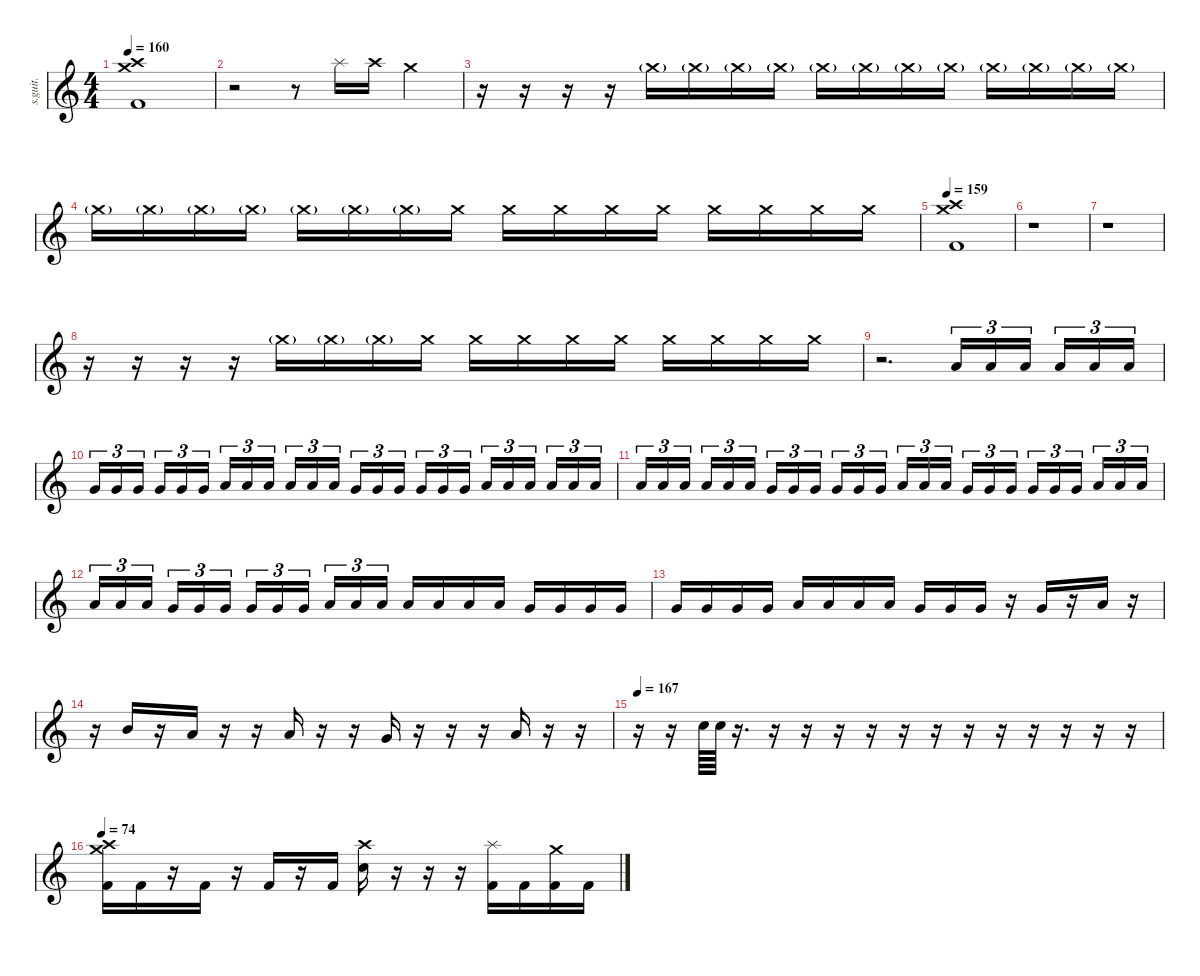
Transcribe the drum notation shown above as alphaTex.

\defaultSystemsLayout 4
\hideDynamics
\bracketExtendMode nobrackets
\track ("Drumkit" "s.guit.") {instrument percussion}
\staff {score}
\articulation defaults
\ts (4 4)
\tempo 160
\clef g2
\ks c
("Crash high (hit)" "Crash medium (hit)" "Kick (hit) 2").1{lyrics (0 "") lyrics (1 "") lyrics (2 "") lyrics (3 "") lyrics (4 "") dy f} |
r.2 r.8 "Splash (hit)".16{lyrics (0 "") lyrics (1 "") lyrics (2 "") lyrics (3 "") lyrics (4 "")} "Crash high (hit)".16{lyrics (0 "") lyrics (1 "") lyrics (2 "") lyrics (3 "") lyrics (4 "")} "Crash medium (hit)".4{lyrics (0 "") lyrics (1 "") lyrics (2 "") lyrics (3 "") lyrics (4 "")} |
r.16 r.16 r.16 r.16 "Crash medium (hit)"{g}.16{lyrics (0 "") lyrics (1 "") lyrics (2 "") lyrics (3 "") lyrics (4 "") dy ppp} "Crash medium (hit)"{g}.16{lyrics (0 "") lyrics (1 "") lyrics (2 "") lyrics (3 "") lyrics (4 "")} "Crash medium (hit)"{g}.16{lyrics (0 "") lyrics (1 "") lyrics (2 "") lyrics (3 "") lyrics (4 "")} "Crash medium (hit)"{g}.16{lyrics (0 "") lyrics (1 "") lyrics (2 "") lyrics (3 "") lyrics (4 "")} "Crash medium (hit)"{g}.16{lyrics (0 "") lyrics (1 "") lyrics (2 "") lyrics (3 "") lyrics (4 "")} "Crash medium (hit)"{g}.16{lyrics (0 "") lyrics (1 "") lyrics (2 "") lyrics (3 "") lyrics (4 "")} "Crash medium (hit)"{g}.16{lyrics (0 "") lyrics (1 "") lyrics (2 "") lyrics (3 "") lyrics (4 "") dy pp} "Crash medium (hit)"{g}.16{lyrics (0 "") lyrics (1 "") lyrics (2 "") lyrics (3 "") lyrics (4 "")} "Crash medium (hit)"{g}.16{lyrics (0 "") lyrics (1 "") lyrics (2 "") lyrics (3 "") lyrics (4 "")} "Crash medium (hit)"{g}.16{lyrics (0 "") lyrics (1 "") lyrics (2 "") lyrics (3 "") lyrics (4 "")} "Crash medium (hit)"{g}.16{lyrics (0 "") lyrics (1 "") lyrics (2 "") lyrics (3 "") lyrics (4 "")} "Crash medium (hit)"{g}.16{lyrics (0 "") lyrics (1 "") lyrics (2 "") lyrics (3 "") lyrics (4 "") dy p} |
"Crash medium (hit)"{g}.16{lyrics (0 "") lyrics (1 "") lyrics (2 "") lyrics (3 "") lyrics (4 "")} "Crash medium (hit)"{g}.16{lyrics (0 "") lyrics (1 "") lyrics (2 "") lyrics (3 "") lyrics (4 "")} "Crash medium (hit)"{g}.16{lyrics (0 "") lyrics (1 "") lyrics (2 "") lyrics (3 "") lyrics (4 "")} "Crash medium (hit)"{g}.16{lyrics (0 "") lyrics (1 "") lyrics (2 "") lyrics (3 "") lyrics (4 "")} "Crash medium (hit)"{g}.16{lyrics (0 "") lyrics (1 "") lyrics (2 "") lyrics (3 "") lyrics (4 "")} "Crash medium (hit)"{g}.16{lyrics (0 "") lyrics (1 "") lyrics (2 "") lyrics (3 "") lyrics (4 "") dy mp} "Crash medium (hit)"{g}.16{lyrics (0 "") lyrics (1 "") lyrics (2 "") lyrics (3 "") lyrics (4 "")} "Crash medium (hit)".16{lyrics (0 "") lyrics (1 "") lyrics (2 "") lyrics (3 "") lyrics (4 "") dy mf} "Crash medium (hit)".16{lyrics (0 "") lyrics (1 "") lyrics (2 "") lyrics (3 "") lyrics (4 "")} "Crash medium (hit)".16{lyrics (0 "") lyrics (1 "") lyrics (2 "") lyrics (3 "") lyrics (4 "")} "Crash medium (hit)".16{lyrics (0 "") lyrics (1 "") lyrics (2 "") lyrics (3 "") lyrics (4 "")} "Crash medium (hit)".16{lyrics (0 "") lyrics (1 "") lyrics (2 "") lyrics (3 "") lyrics (4 "")} "Crash medium (hit)".16{lyrics (0 "") lyrics (1 "") lyrics (2 "") lyrics (3 "") lyrics (4 "") dy f} "Crash medium (hit)".16{lyrics (0 "") lyrics (1 "") lyrics (2 "") lyrics (3 "") lyrics (4 "")} "Crash medium (hit)".16{lyrics (0 "") lyrics (1 "") lyrics (2 "") lyrics (3 "") lyrics (4 "")} "Crash medium (hit)".16{lyrics (0 "") lyrics (1 "") lyrics (2 "") lyrics (3 "") lyrics (4 "")} |
\tempo 159
("Crash medium (hit)" "Crash high (hit)" "Kick (hit) 2").1{lyrics (0 "") lyrics (1 "") lyrics (2 "") lyrics (3 "") lyrics (4 "")} |
r.1 |
r.1 |
r.16 r.16 r.16 r.16 "Crash medium (hit)"{g}.16{lyrics (0 "") lyrics (1 "") lyrics (2 "") lyrics (3 "") lyrics (4 "") dy p} "Crash medium (hit)"{g}.16{lyrics (0 "") lyrics (1 "") lyrics (2 "") lyrics (3 "") lyrics (4 "") dy mp} "Crash medium (hit)"{g}.16{lyrics (0 "") lyrics (1 "") lyrics (2 "") lyrics (3 "") lyrics (4 "")} "Crash medium (hit)".16{lyrics (0 "") lyrics (1 "") lyrics (2 "") lyrics (3 "") lyrics (4 "") dy mf} "Crash medium (hit)".16{lyrics (0 "") lyrics (1 "") lyrics (2 "") lyrics (3 "") lyrics (4 "")} "Crash medium (hit)".16{lyrics (0 "") lyrics (1 "") lyrics (2 "") lyrics (3 "") lyrics (4 "")} "Crash medium (hit)".16{lyrics (0 "") lyrics (1 "") lyrics (2 "") lyrics (3 "") lyrics (4 "")} "Crash medium (hit)".16{lyrics (0 "") lyrics (1 "") lyrics (2 "") lyrics (3 "") lyrics (4 "")} "Crash medium (hit)".16{lyrics (0 "") lyrics (1 "") lyrics (2 "") lyrics (3 "") lyrics (4 "") dy f} "Crash medium (hit)".16{lyrics (0 "") lyrics (1 "") lyrics (2 "") lyrics (3 "") lyrics (4 "")} "Crash medium (hit)".16{lyrics (0 "") lyrics (1 "") lyrics (2 "") lyrics (3 "") lyrics (4 "")} "Crash medium (hit)".16{lyrics (0 "") lyrics (1 "") lyrics (2 "") lyrics (3 "") lyrics (4 "")} |
r.2{d} "Low Tom (hit)".16{tu (3 2) lyrics (0 "") lyrics (1 "") lyrics (2 "") lyrics (3 "") lyrics (4 "")} "Low Tom (hit)".16{tu (3 2) lyrics (0 "") lyrics (1 "") lyrics (2 "") lyrics (3 "") lyrics (4 "")} "Low Tom (hit)".16{tu (3 2) lyrics (0 "") lyrics (1 "") lyrics (2 "") lyrics (3 "") lyrics (4 "")} "Low Tom (hit)".16{tu (3 2) lyrics (0 "") lyrics (1 "") lyrics (2 "") lyrics (3 "") lyrics (4 "")} "Low Tom (hit)".16{tu (3 2) lyrics (0 "") lyrics (1 "") lyrics (2 "") lyrics (3 "") lyrics (4 "")} "Low Tom (hit)".16{tu (3 2) lyrics (0 "") lyrics (1 "") lyrics (2 "") lyrics (3 "") lyrics (4 "")} |
"Very Low Tom (hit)".16{tu (3 2) lyrics (0 "") lyrics (1 "") lyrics (2 "") lyrics (3 "") lyrics (4 "")} "Very Low Tom (hit)".16{tu (3 2) lyrics (0 "") lyrics (1 "") lyrics (2 "") lyrics (3 "") lyrics (4 "")} "Very Low Tom (hit)".16{tu (3 2) lyrics (0 "") lyrics (1 "") lyrics (2 "") lyrics (3 "") lyrics (4 "")} "Very Low Tom (hit)".16{tu (3 2) lyrics (0 "") lyrics (1 "") lyrics (2 "") lyrics (3 "") lyrics (4 "")} "Very Low Tom (hit)".16{tu (3 2) lyrics (0 "") lyrics (1 "") lyrics (2 "") lyrics (3 "") lyrics (4 "")} "Very Low Tom (hit)".16{tu (3 2) lyrics (0 "") lyrics (1 "") lyrics (2 "") lyrics (3 "") lyrics (4 "")} "Low Floor Tom (hit)".16{tu (3 2) lyrics (0 "") lyrics (1 "") lyrics (2 "") lyrics (3 "") lyrics (4 "")} "Low Floor Tom (hit)".16{tu (3 2) lyrics (0 "") lyrics (1 "") lyrics (2 "") lyrics (3 "") lyrics (4 "")} "Low Floor Tom (hit)".16{tu (3 2) lyrics (0 "") lyrics (1 "") lyrics (2 "") lyrics (3 "") lyrics (4 "")} "Low Floor Tom (hit)".16{tu (3 2) lyrics (0 "") lyrics (1 "") lyrics (2 "") lyrics (3 "") lyrics (4 "")} "Low Floor Tom (hit)".16{tu (3 2) lyrics (0 "") lyrics (1 "") lyrics (2 "") lyrics (3 "") lyrics (4 "")} "Low Floor Tom (hit)".16{tu (3 2) lyrics (0 "") lyrics (1 "") lyrics (2 "") lyrics (3 "") lyrics (4 "")} "Very Low Tom (hit)".16{tu (3 2) lyrics (0 "") lyrics (1 "") lyrics (2 "") lyrics (3 "") lyrics (4 "")} "Very Low Tom (hit)".16{tu (3 2) lyrics (0 "") lyrics (1 "") lyrics (2 "") lyrics (3 "") lyrics (4 "")} "Very Low Tom (hit)".16{tu (3 2) lyrics (0 "") lyrics (1 "") lyrics (2 "") lyrics (3 "") lyrics (4 "")} "Very Low Tom (hit)".16{tu (3 2) lyrics (0 "") lyrics (1 "") lyrics (2 "") lyrics (3 "") lyrics (4 "")} "Very Low Tom (hit)".16{tu (3 2) lyrics (0 "") lyrics (1 "") lyrics (2 "") lyrics (3 "") lyrics (4 "")} "Very Low Tom (hit)".16{tu (3 2) lyrics (0 "") lyrics (1 "") lyrics (2 "") lyrics (3 "") lyrics (4 "")} "Low Tom (hit)".16{tu (3 2) lyrics (0 "") lyrics (1 "") lyrics (2 "") lyrics (3 "") lyrics (4 "")} "Low Tom (hit)".16{tu (3 2) lyrics (0 "") lyrics (1 "") lyrics (2 "") lyrics (3 "") lyrics (4 "")} "Low Tom (hit)".16{tu (3 2) lyrics (0 "") lyrics (1 "") lyrics (2 "") lyrics (3 "") lyrics (4 "")} "Low Tom (hit)".16{tu (3 2) lyrics (0 "") lyrics (1 "") lyrics (2 "") lyrics (3 "") lyrics (4 "")} "Low Tom (hit)".16{tu (3 2) lyrics (0 "") lyrics (1 "") lyrics (2 "") lyrics (3 "") lyrics (4 "")} "Low Tom (hit)".16{tu (3 2) lyrics (0 "") lyrics (1 "") lyrics (2 "") lyrics (3 "") lyrics (4 "")} |
"Low Tom (hit)".16{tu (3 2) lyrics (0 "") lyrics (1 "") lyrics (2 "") lyrics (3 "") lyrics (4 "")} "Low Tom (hit)".16{tu (3 2) lyrics (0 "") lyrics (1 "") lyrics (2 "") lyrics (3 "") lyrics (4 "")} "Low Tom (hit)".16{tu (3 2) lyrics (0 "") lyrics (1 "") lyrics (2 "") lyrics (3 "") lyrics (4 "")} "Low Tom (hit)".16{tu (3 2) lyrics (0 "") lyrics (1 "") lyrics (2 "") lyrics (3 "") lyrics (4 "")} "Low Tom (hit)".16{tu (3 2) lyrics (0 "") lyrics (1 "") lyrics (2 "") lyrics (3 "") lyrics (4 "")} "Low Tom (hit)".16{tu (3 2) lyrics (0 "") lyrics (1 "") lyrics (2 "") lyrics (3 "") lyrics (4 "")} "Very Low Tom (hit)".16{tu (3 2) lyrics (0 "") lyrics (1 "") lyrics (2 "") lyrics (3 "") lyrics (4 "")} "Very Low Tom (hit)".16{tu (3 2) lyrics (0 "") lyrics (1 "") lyrics (2 "") lyrics (3 "") lyrics (4 "")} "Very Low Tom (hit)".16{tu (3 2) lyrics (0 "") lyrics (1 "") lyrics (2 "") lyrics (3 "") lyrics (4 "")} "Very Low Tom (hit)".16{tu (3 2) lyrics (0 "") lyrics (1 "") lyrics (2 "") lyrics (3 "") lyrics (4 "")} "Very Low Tom (hit)".16{tu (3 2) lyrics (0 "") lyrics (1 "") lyrics (2 "") lyrics (3 "") lyrics (4 "")} "Very Low Tom (hit)".16{tu (3 2) lyrics (0 "") lyrics (1 "") lyrics (2 "") lyrics (3 "") lyrics (4 "")} "Low Tom (hit)".16{tu (3 2) lyrics (0 "") lyrics (1 "") lyrics (2 "") lyrics (3 "") lyrics (4 "")} "Low Tom (hit)".16{tu (3 2) lyrics (0 "") lyrics (1 "") lyrics (2 "") lyrics (3 "") lyrics (4 "")} "Low Tom (hit)".16{tu (3 2) lyrics (0 "") lyrics (1 "") lyrics (2 "") lyrics (3 "") lyrics (4 "")} "Very Low Tom (hit)".16{tu (3 2) lyrics (0 "") lyrics (1 "") lyrics (2 "") lyrics (3 "") lyrics (4 "")} "Very Low Tom (hit)".16{tu (3 2) lyrics (0 "") lyrics (1 "") lyrics (2 "") lyrics (3 "") lyrics (4 "")} "Very Low Tom (hit)".16{tu (3 2) lyrics (0 "") lyrics (1 "") lyrics (2 "") lyrics (3 "") lyrics (4 "")} "Very Low Tom (hit)".16{tu (3 2) lyrics (0 "") lyrics (1 "") lyrics (2 "") lyrics (3 "") lyrics (4 "")} "Very Low Tom (hit)".16{tu (3 2) lyrics (0 "") lyrics (1 "") lyrics (2 "") lyrics (3 "") lyrics (4 "")} "Very Low Tom (hit)".16{tu (3 2) lyrics (0 "") lyrics (1 "") lyrics (2 "") lyrics (3 "") lyrics (4 "")} "Low Floor Tom (hit)".16{tu (3 2) lyrics (0 "") lyrics (1 "") lyrics (2 "") lyrics (3 "") lyrics (4 "")} "Low Floor Tom (hit)".16{tu (3 2) lyrics (0 "") lyrics (1 "") lyrics (2 "") lyrics (3 "") lyrics (4 "")} "Low Floor Tom (hit)".16{tu (3 2) lyrics (0 "") lyrics (1 "") lyrics (2 "") lyrics (3 "") lyrics (4 "")} |
"Low Tom (hit)".16{tu (3 2) lyrics (0 "") lyrics (1 "") lyrics (2 "") lyrics (3 "") lyrics (4 "")} "Low Tom (hit)".16{tu (3 2) lyrics (0 "") lyrics (1 "") lyrics (2 "") lyrics (3 "") lyrics (4 "")} "Low Tom (hit)".16{tu (3 2) lyrics (0 "") lyrics (1 "") lyrics (2 "") lyrics (3 "") lyrics (4 "")} "Very Low Tom (hit)".16{tu (3 2) lyrics (0 "") lyrics (1 "") lyrics (2 "") lyrics (3 "") lyrics (4 "")} "Very Low Tom (hit)".16{tu (3 2) lyrics (0 "") lyrics (1 "") lyrics (2 "") lyrics (3 "") lyrics (4 "")} "Very Low Tom (hit)".16{tu (3 2) lyrics (0 "") lyrics (1 "") lyrics (2 "") lyrics (3 "") lyrics (4 "")} "Very Low Tom (hit)".16{tu (3 2) lyrics (0 "") lyrics (1 "") lyrics (2 "") lyrics (3 "") lyrics (4 "")} "Very Low Tom (hit)".16{tu (3 2) lyrics (0 "") lyrics (1 "") lyrics (2 "") lyrics (3 "") lyrics (4 "")} "Very Low Tom (hit)".16{tu (3 2) lyrics (0 "") lyrics (1 "") lyrics (2 "") lyrics (3 "") lyrics (4 "")} "Low Tom (hit)".16{tu (3 2) lyrics (0 "") lyrics (1 "") lyrics (2 "") lyrics (3 "") lyrics (4 "")} "Low Tom (hit)".16{tu (3 2) lyrics (0 "") lyrics (1 "") lyrics (2 "") lyrics (3 "") lyrics (4 "")} "Low Tom (hit)".16{tu (3 2) lyrics (0 "") lyrics (1 "") lyrics (2 "") lyrics (3 "") lyrics (4 "")} "Low Tom (hit)".16{lyrics (0 "") lyrics (1 "") lyrics (2 "") lyrics (3 "") lyrics (4 "")} "Low Tom (hit)".16{lyrics (0 "") lyrics (1 "") lyrics (2 "") lyrics (3 "") lyrics (4 "")} "Low Tom (hit)".16{lyrics (0 "") lyrics (1 "") lyrics (2 "") lyrics (3 "") lyrics (4 "")} "Low Tom (hit)".16{lyrics (0 "") lyrics (1 "") lyrics (2 "") lyrics (3 "") lyrics (4 "")} "Very Low Tom (hit)".16{lyrics (0 "") lyrics (1 "") lyrics (2 "") lyrics (3 "") lyrics (4 "")} "Very Low Tom (hit)".16{lyrics (0 "") lyrics (1 "") lyrics (2 "") lyrics (3 "") lyrics (4 "")} "Very Low Tom (hit)".16{lyrics (0 "") lyrics (1 "") lyrics (2 "") lyrics (3 "") lyrics (4 "")} "Very Low Tom (hit)".16{lyrics (0 "") lyrics (1 "") lyrics (2 "") lyrics (3 "") lyrics (4 "")} |
"Very Low Tom (hit)".16{lyrics (0 "") lyrics (1 "") lyrics (2 "") lyrics (3 "") lyrics (4 "")} "Very Low Tom (hit)".16{lyrics (0 "") lyrics (1 "") lyrics (2 "") lyrics (3 "") lyrics (4 "")} "Very Low Tom (hit)".16{lyrics (0 "") lyrics (1 "") lyrics (2 "") lyrics (3 "") lyrics (4 "")} "Very Low Tom (hit)".16{lyrics (0 "") lyrics (1 "") lyrics (2 "") lyrics (3 "") lyrics (4 "")} "Low Floor Tom (hit)".16{lyrics (0 "") lyrics (1 "") lyrics (2 "") lyrics (3 "") lyrics (4 "")} "Low Floor Tom (hit)".16{lyrics (0 "") lyrics (1 "") lyrics (2 "") lyrics (3 "") lyrics (4 "")} "Low Floor Tom (hit)".16{lyrics (0 "") lyrics (1 "") lyrics (2 "") lyrics (3 "") lyrics (4 "")} "Low Floor Tom (hit)".16{lyrics (0 "") lyrics (1 "") lyrics (2 "") lyrics (3 "") lyrics (4 "")} "Very Low Tom (hit)".16{lyrics (0 "") lyrics (1 "") lyrics (2 "") lyrics (3 "") lyrics (4 "")} "Very Low Tom (hit)".16{lyrics (0 "") lyrics (1 "") lyrics (2 "") lyrics (3 "") lyrics (4 "")} "Very Low Tom (hit)".16{lyrics (0 "") lyrics (1 "") lyrics (2 "") lyrics (3 "") lyrics (4 "")} r.16 "Very Low Tom (hit)".16{lyrics (0 "") lyrics (1 "") lyrics (2 "") lyrics (3 "") lyrics (4 "")} r.16 "Low Tom (hit)".16{lyrics (0 "") lyrics (1 "") lyrics (2 "") lyrics (3 "") lyrics (4 "")} r.16 |
r.16 "Mid Tom (hit)".16{lyrics (0 "") lyrics (1 "") lyrics (2 "") lyrics (3 "") lyrics (4 "")} r.16 "Low Tom (hit)".16{lyrics (0 "") lyrics (1 "") lyrics (2 "") lyrics (3 "") lyrics (4 "")} r.16 r.16 "Low Tom (hit)".16{lyrics (0 "") lyrics (1 "") lyrics (2 "") lyrics (3 "") lyrics (4 "")} r.16 r.16 "Very Low Tom (hit)".16{lyrics (0 "") lyrics (1 "") lyrics (2 "") lyrics (3 "") lyrics (4 "")} r.16 r.16 r.16 "Low Floor Tom (hit)".16{lyrics (0 "") lyrics (1 "") lyrics (2 "") lyrics (3 "") lyrics (4 "")} r.16 r.16 |
\tempo 167
r.16 r.16 "Electric Snare (hit)".64{lyrics (0 "") lyrics (1 "") lyrics (2 "") lyrics (3 "") lyrics (4 "")} "Electric Snare (hit)".64{lyrics (0 "") lyrics (1 "") lyrics (2 "") lyrics (3 "") lyrics (4 "")} r.16{d} r.16 r.16 r.16 r.16 r.16 r.16 r.16 r.16 r.16 r.16 r.16 r.16 |
\tempo 74
("Crash medium (hit)" "Crash high (hit)" "Kick (hit) 2").16{lyrics (0 "") lyrics (1 "") lyrics (2 "") lyrics (3 "") lyrics (4 "")} "Kick (hit) 2".16{lyrics (0 "") lyrics (1 "") lyrics (2 "") lyrics (3 "") lyrics (4 "")} r.16 "Kick (hit) 2".16{lyrics (0 "") lyrics (1 "") lyrics (2 "") lyrics (3 "") lyrics (4 "")} r.16 "Kick (hit) 2".16{lyrics (0 "") lyrics (1 "") lyrics (2 "") lyrics (3 "") lyrics (4 "")} r.16 "Kick (hit) 2".16{lyrics (0 "") lyrics (1 "") lyrics (2 "") lyrics (3 "") lyrics (4 "")} ("Crash high (hit)" "Electric Snare (hit)").16{lyrics (0 "") lyrics (1 "") lyrics (2 "") lyrics (3 "") lyrics (4 "")} r.16 r.16 r.16 ("Splash (hit)" "Kick (hit) 2").16{lyrics (0 "") lyrics (1 "") lyrics (2 "") lyrics (3 "") lyrics (4 "")} "Kick (hit) 2".16{lyrics (0 "") lyrics (1 "") lyrics (2 "") lyrics (3 "") lyrics (4 "")} ("Crash medium (hit)" "Kick (hit) 2").16{lyrics (0 "") lyrics (1 "") lyrics (2 "") lyrics (3 "") lyrics (4 "")} "Kick (hit) 2".16{lyrics (0 "") lyrics (1 "") lyrics (2 "") lyrics (3 "") lyrics (4 "")}
